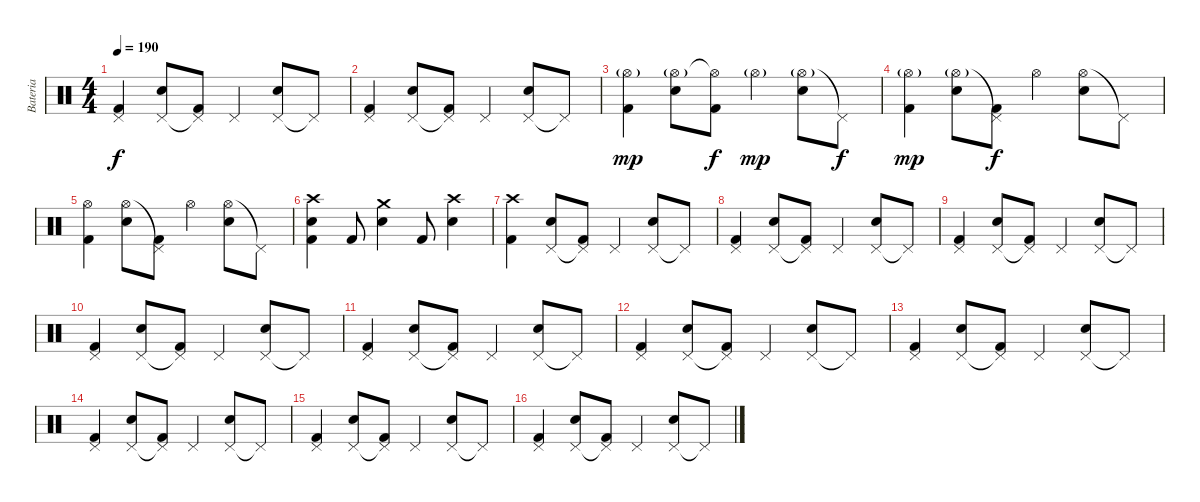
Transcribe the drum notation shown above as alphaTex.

\track ("Bateria" "Bateria") {instrument percussion}
\staff {score}
\articulation defaults
\ts (4 4)
\tempo 190
\clef neutral
\ks c
("Pedal Hi-Hat (hit)" "Kick (hit) 2").4{dy f} ("Pedal Hi-Hat (hit)" "Snare (hit) 2").8 ("Pedal Hi-Hat (hit)"{t} "Kick (hit) 2").8 "Pedal Hi-Hat (hit)".4 ("Pedal Hi-Hat (hit)" "Snare (hit) 2").8 "Pedal Hi-Hat (hit)"{t}.8 |
("Pedal Hi-Hat (hit)" "Kick (hit) 2").4 ("Pedal Hi-Hat (hit)" "Snare (hit) 2").8 ("Pedal Hi-Hat (hit)"{t} "Kick (hit) 2").8 "Pedal Hi-Hat (hit)".4 ("Pedal Hi-Hat (hit)" "Snare (hit) 2").8 "Pedal Hi-Hat (hit)"{t}.8 |
("Hi-Hat (open)"{g} "Kick (hit) 2").4{dy mp} ("Hi-Hat (open)"{g} "Snare (hit) 2").8 ("Hi-Hat (open)"{t} "Kick (hit) 2").8{dy f} "Hi-Hat (open)"{g}.4{dy mp} ("Hi-Hat (open)"{g} "Snare (hit) 2").8 "Pedal Hi-Hat (hit)"{t}.8{dy f} |
("Hi-Hat (open)"{g} "Kick (hit) 2").4{dy mp} ("Hi-Hat (open)"{g} "Snare (hit) 2").8 ("Pedal Hi-Hat (hit)"{t} "Kick (hit) 2").8{dy f} "Hi-Hat (open)".4 ("Hi-Hat (open)" "Snare (hit) 2").8 "Pedal Hi-Hat (hit)"{t}.8 |
("Hi-Hat (open)" "Kick (hit) 2").4 ("Hi-Hat (open)" "Snare (hit) 2").8 ("Pedal Hi-Hat (hit)"{t} "Kick (hit) 2").8 "Hi-Hat (open)".4 ("Hi-Hat (open)" "Snare (hit) 2").8 "Pedal Hi-Hat (hit)"{t}.8 |
("Crash high (hit)" "Snare (hit) 2" "Kick (hit) 2").4 "Kick (hit) 2".8 ("Crash medium (hit)" "Snare (hit) 2").4 "Kick (hit) 2".8 ("Crash high (hit)" "Snare (hit) 2").4 |
("Crash high (hit)" "Kick (hit) 2").4 ("Pedal Hi-Hat (hit)" "Snare (hit) 2").8 ("Pedal Hi-Hat (hit)"{t} "Kick (hit) 2").8 "Pedal Hi-Hat (hit)".4 ("Pedal Hi-Hat (hit)" "Snare (hit) 2").8 "Pedal Hi-Hat (hit)"{t}.8 |
("Pedal Hi-Hat (hit)" "Kick (hit) 2").4 ("Pedal Hi-Hat (hit)" "Snare (hit) 2").8 ("Pedal Hi-Hat (hit)"{t} "Kick (hit) 2").8 "Pedal Hi-Hat (hit)".4 ("Pedal Hi-Hat (hit)" "Snare (hit) 2").8 "Pedal Hi-Hat (hit)"{t}.8 |
("Pedal Hi-Hat (hit)" "Kick (hit) 2").4 ("Pedal Hi-Hat (hit)" "Snare (hit) 2").8 ("Pedal Hi-Hat (hit)"{t} "Kick (hit) 2").8 "Pedal Hi-Hat (hit)".4 ("Pedal Hi-Hat (hit)" "Snare (hit) 2").8 "Pedal Hi-Hat (hit)"{t}.8 |
("Pedal Hi-Hat (hit)" "Kick (hit) 2").4 ("Pedal Hi-Hat (hit)" "Snare (hit) 2").8 ("Pedal Hi-Hat (hit)"{t} "Kick (hit) 2").8 "Pedal Hi-Hat (hit)".4 ("Pedal Hi-Hat (hit)" "Snare (hit) 2").8 "Pedal Hi-Hat (hit)"{t}.8 |
("Pedal Hi-Hat (hit)" "Kick (hit) 2").4 ("Pedal Hi-Hat (hit)" "Snare (hit) 2").8 ("Pedal Hi-Hat (hit)"{t} "Kick (hit) 2").8 "Pedal Hi-Hat (hit)".4 ("Pedal Hi-Hat (hit)" "Snare (hit) 2").8 "Pedal Hi-Hat (hit)"{t}.8 |
("Pedal Hi-Hat (hit)" "Kick (hit) 2").4 ("Pedal Hi-Hat (hit)" "Snare (hit) 2").8 ("Pedal Hi-Hat (hit)"{t} "Kick (hit) 2").8 "Pedal Hi-Hat (hit)".4 ("Pedal Hi-Hat (hit)" "Snare (hit) 2").8 "Pedal Hi-Hat (hit)"{t}.8 |
("Pedal Hi-Hat (hit)" "Kick (hit) 2").4 ("Pedal Hi-Hat (hit)" "Snare (hit) 2").8 ("Pedal Hi-Hat (hit)"{t} "Kick (hit) 2").8 "Pedal Hi-Hat (hit)".4 ("Pedal Hi-Hat (hit)" "Snare (hit) 2").8 "Pedal Hi-Hat (hit)"{t}.8 |
("Pedal Hi-Hat (hit)" "Kick (hit) 2").4 ("Pedal Hi-Hat (hit)" "Snare (hit) 2").8 ("Pedal Hi-Hat (hit)"{t} "Kick (hit) 2").8 "Pedal Hi-Hat (hit)".4 ("Pedal Hi-Hat (hit)" "Snare (hit) 2").8 "Pedal Hi-Hat (hit)"{t}.8 |
("Pedal Hi-Hat (hit)" "Kick (hit) 2").4 ("Pedal Hi-Hat (hit)" "Snare (hit) 2").8 ("Pedal Hi-Hat (hit)"{t} "Kick (hit) 2").8 "Pedal Hi-Hat (hit)".4 ("Pedal Hi-Hat (hit)" "Snare (hit) 2").8 "Pedal Hi-Hat (hit)"{t}.8 |
("Pedal Hi-Hat (hit)" "Kick (hit) 2").4 ("Pedal Hi-Hat (hit)" "Snare (hit) 2").8 ("Pedal Hi-Hat (hit)"{t} "Kick (hit) 2").8 "Pedal Hi-Hat (hit)".4 ("Pedal Hi-Hat (hit)" "Snare (hit) 2").8 "Pedal Hi-Hat (hit)"{t}.8
